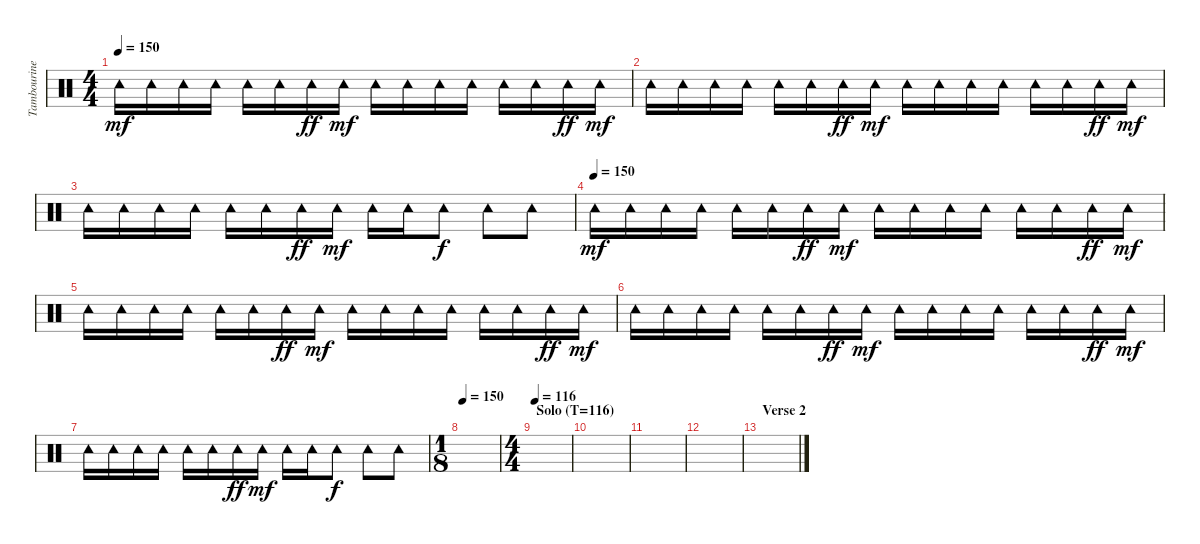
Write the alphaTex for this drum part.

\track ("Tambourine" "Tambourine") {instrument percussion}
\staff {score}
\articulation defaults
\ts (4 4)
\tempo 150
\clef neutral
\ks c "Tambourine (hit)".16{dy mf} "Tambourine (hit)".16 "Tambourine (hit)".16 "Tambourine (hit)".16 "Tambourine (hit)".16 "Tambourine (hit)".16 "Tambourine (hit)".16{dy ff} "Tambourine (hit)".16{dy mf} "Tambourine (hit)".16 "Tambourine (hit)".16 "Tambourine (hit)".16 "Tambourine (hit)".16 "Tambourine (hit)".16 "Tambourine (hit)".16 "Tambourine (hit)".16{dy ff} "Tambourine (hit)".16{dy mf}
|
"Tambourine (hit)".16 "Tambourine (hit)".16 "Tambourine (hit)".16 "Tambourine (hit)".16 "Tambourine (hit)".16 "Tambourine (hit)".16 "Tambourine (hit)".16{dy ff} "Tambourine (hit)".16{dy mf} "Tambourine (hit)".16 "Tambourine (hit)".16 "Tambourine (hit)".16 "Tambourine (hit)".16 "Tambourine (hit)".16 "Tambourine (hit)".16 "Tambourine (hit)".16{dy ff} "Tambourine (hit)".16{dy mf} |
"Tambourine (hit)".16 "Tambourine (hit)".16 "Tambourine (hit)".16 "Tambourine (hit)".16 "Tambourine (hit)".16 "Tambourine (hit)".16 "Tambourine (hit)".16{dy ff} "Tambourine (hit)".16{dy mf} "Tambourine (hit)".16 "Tambourine (hit)".16 "Tambourine (hit)".8{dy f} "Tambourine (hit)".8 "Tambourine (hit)".8 |
\tempo (150)
"Tambourine (hit)".16{dy mf} "Tambourine (hit)".16 "Tambourine (hit)".16 "Tambourine (hit)".16 "Tambourine (hit)".16 "Tambourine (hit)".16 "Tambourine (hit)".16{dy ff} "Tambourine (hit)".16{dy mf} "Tambourine (hit)".16 "Tambourine (hit)".16 "Tambourine (hit)".16 "Tambourine (hit)".16 "Tambourine (hit)".16 "Tambourine (hit)".16 "Tambourine (hit)".16{dy ff} "Tambourine (hit)".16{dy mf} |
"Tambourine (hit)".16 "Tambourine (hit)".16 "Tambourine (hit)".16 "Tambourine (hit)".16 "Tambourine (hit)".16 "Tambourine (hit)".16 "Tambourine (hit)".16{dy ff} "Tambourine (hit)".16{dy mf} "Tambourine (hit)".16 "Tambourine (hit)".16 "Tambourine (hit)".16 "Tambourine (hit)".16 "Tambourine (hit)".16 "Tambourine (hit)".16 "Tambourine (hit)".16{dy ff} "Tambourine (hit)".16{dy mf} |
"Tambourine (hit)".16 "Tambourine (hit)".16 "Tambourine (hit)".16 "Tambourine (hit)".16 "Tambourine (hit)".16 "Tambourine (hit)".16 "Tambourine (hit)".16{dy ff} "Tambourine (hit)".16{dy mf} "Tambourine (hit)".16 "Tambourine (hit)".16 "Tambourine (hit)".16 "Tambourine (hit)".16 "Tambourine (hit)".16 "Tambourine (hit)".16 "Tambourine (hit)".16{dy ff} "Tambourine (hit)".16{dy mf} |
"Tambourine (hit)".16 "Tambourine (hit)".16 "Tambourine (hit)".16 "Tambourine (hit)".16 "Tambourine (hit)".16 "Tambourine (hit)".16 "Tambourine (hit)".16{dy ff} "Tambourine (hit)".16{dy mf} "Tambourine (hit)".16 "Tambourine (hit)".16 "Tambourine (hit)".8{dy f} "Tambourine (hit)".8 "Tambourine (hit)".8 |
\ts (1 8)
\tempo 150
|
\ts (4 4)
\section ("" "Solo (T=116)")
\tempo 116
|
|
|
|
\section ("" "Verse 2")
